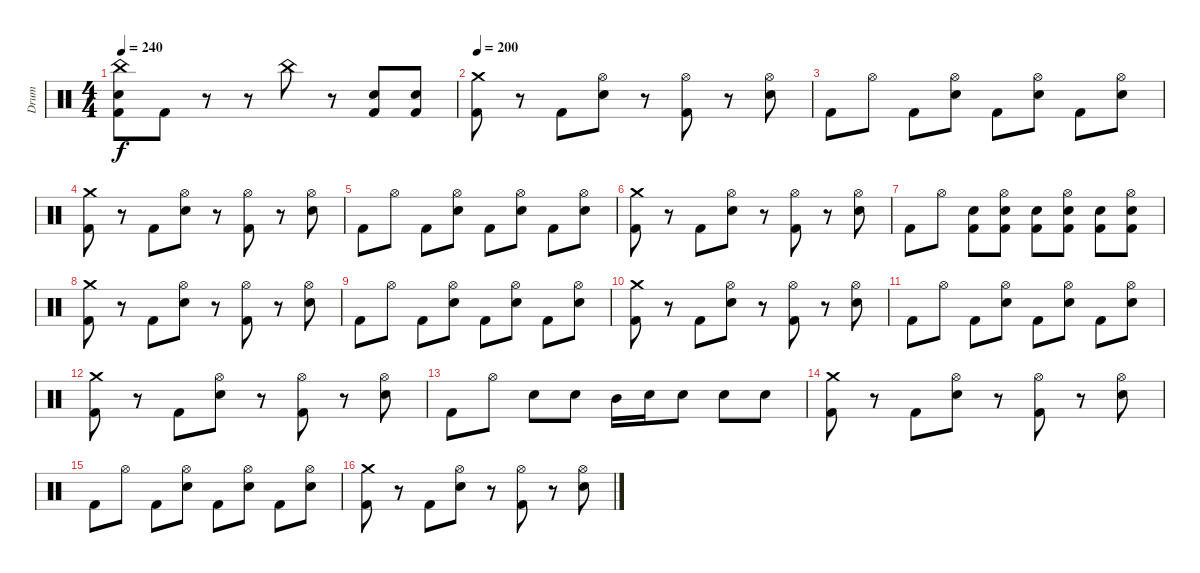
\track ("Drum" "Drum") {instrument percussion}
\staff {score}
\articulation defaults
\ts (4 4)
\tempo 240
\clef neutral
\ks c
("China (hit)" "Electric Snare (hit)" "Kick (hit) 2").8{dy f} "Kick (hit) 2".8 r.8 r.8 "China (hit)".8 r.8 ("Electric Snare (hit)" "Kick (hit) 2").8 ("Electric Snare (hit)" "Kick (hit) 2").8 |
\tempo 200
("Crash medium (hit)" "Kick (hit) 2").8 r.8 "Kick (hit) 2".8 ("Hi-Hat (open)" "Electric Snare (hit)").8 r.8 ("Hi-Hat (open)" "Kick (hit) 2").8 r.8 ("Hi-Hat (open)" "Electric Snare (hit)").8 |
"Kick (hit) 2".8 "Hi-Hat (open)".8 "Kick (hit) 2".8 ("Hi-Hat (open)" "Electric Snare (hit)").8 "Kick (hit) 2".8 ("Hi-Hat (open)" "Electric Snare (hit)").8 "Kick (hit) 2".8 ("Hi-Hat (open)" "Electric Snare (hit)").8 |
("Crash medium (hit)" "Kick (hit) 2").8 r.8 "Kick (hit) 2".8 ("Hi-Hat (open)" "Electric Snare (hit)").8 r.8 ("Hi-Hat (open)" "Kick (hit) 2").8 r.8 ("Hi-Hat (open)" "Electric Snare (hit)").8 |
"Kick (hit) 2".8 "Hi-Hat (open)".8 "Kick (hit) 2".8 ("Hi-Hat (open)" "Electric Snare (hit)").8 "Kick (hit) 2".8 ("Hi-Hat (open)" "Electric Snare (hit)").8 "Kick (hit) 2".8 ("Hi-Hat (open)" "Electric Snare (hit)").8 |
("Crash medium (hit)" "Kick (hit) 2").8 r.8 "Kick (hit) 2".8 ("Hi-Hat (open)" "Electric Snare (hit)").8 r.8 ("Hi-Hat (open)" "Kick (hit) 2").8 r.8 ("Hi-Hat (open)" "Electric Snare (hit)").8 |
"Kick (hit) 2".8 "Hi-Hat (open)".8 ("Electric Snare (hit)" "Kick (hit) 2").8 ("Hi-Hat (open)" "Electric Snare (hit)" "Kick (hit) 2").8 ("Electric Snare (hit)" "Kick (hit) 2").8 ("Hi-Hat (open)" "Electric Snare (hit)" "Kick (hit) 2").8 ("Electric Snare (hit)" "Kick (hit) 2").8 ("Hi-Hat (open)" "Electric Snare (hit)" "Kick (hit) 2").8 |
("Crash medium (hit)" "Kick (hit) 2").8 r.8 "Kick (hit) 2".8 ("Hi-Hat (open)" "Electric Snare (hit)").8 r.8 ("Hi-Hat (open)" "Kick (hit) 2").8 r.8 ("Hi-Hat (open)" "Electric Snare (hit)").8 |
"Kick (hit) 2".8 "Hi-Hat (open)".8 "Kick (hit) 2".8 ("Hi-Hat (open)" "Electric Snare (hit)").8 "Kick (hit) 2".8 ("Hi-Hat (open)" "Electric Snare (hit)").8 "Kick (hit) 2".8 ("Hi-Hat (open)" "Electric Snare (hit)").8 |
("Crash medium (hit)" "Kick (hit) 2").8 r.8 "Kick (hit) 2".8 ("Hi-Hat (open)" "Electric Snare (hit)").8 r.8 ("Hi-Hat (open)" "Kick (hit) 2").8 r.8 ("Hi-Hat (open)" "Electric Snare (hit)").8 |
"Kick (hit) 2".8 "Hi-Hat (open)".8 "Kick (hit) 2".8 ("Hi-Hat (open)" "Electric Snare (hit)").8 "Kick (hit) 2".8 ("Hi-Hat (open)" "Electric Snare (hit)").8 "Kick (hit) 2".8 ("Hi-Hat (open)" "Electric Snare (hit)").8 |
("Crash medium (hit)" "Kick (hit) 2").8 r.8 "Kick (hit) 2".8 ("Hi-Hat (open)" "Electric Snare (hit)").8 r.8 ("Hi-Hat (open)" "Kick (hit) 2").8 r.8 ("Hi-Hat (open)" "Electric Snare (hit)").8 |
"Kick (hit) 2".8 "Hi-Hat (open)".8 "Electric Snare (hit)".8 "Electric Snare (hit)".8 "Mid Tom (hit)".16 "Electric Snare (hit)".16 "Electric Snare (hit)".8 "Electric Snare (hit)".8 "Electric Snare (hit)".8 |
("Crash medium (hit)" "Kick (hit) 2").8 r.8 "Kick (hit) 2".8 ("Hi-Hat (open)" "Electric Snare (hit)").8 r.8 ("Hi-Hat (open)" "Kick (hit) 2").8 r.8 ("Hi-Hat (open)" "Electric Snare (hit)").8 |
"Kick (hit) 2".8 "Hi-Hat (open)".8 "Kick (hit) 2".8 ("Hi-Hat (open)" "Electric Snare (hit)").8 "Kick (hit) 2".8 ("Hi-Hat (open)" "Electric Snare (hit)").8 "Kick (hit) 2".8 ("Hi-Hat (open)" "Electric Snare (hit)").8 |
("Crash medium (hit)" "Kick (hit) 2").8 r.8 "Kick (hit) 2".8 ("Hi-Hat (open)" "Electric Snare (hit)").8 r.8 ("Hi-Hat (open)" "Kick (hit) 2").8 r.8 ("Hi-Hat (open)" "Electric Snare (hit)").8
